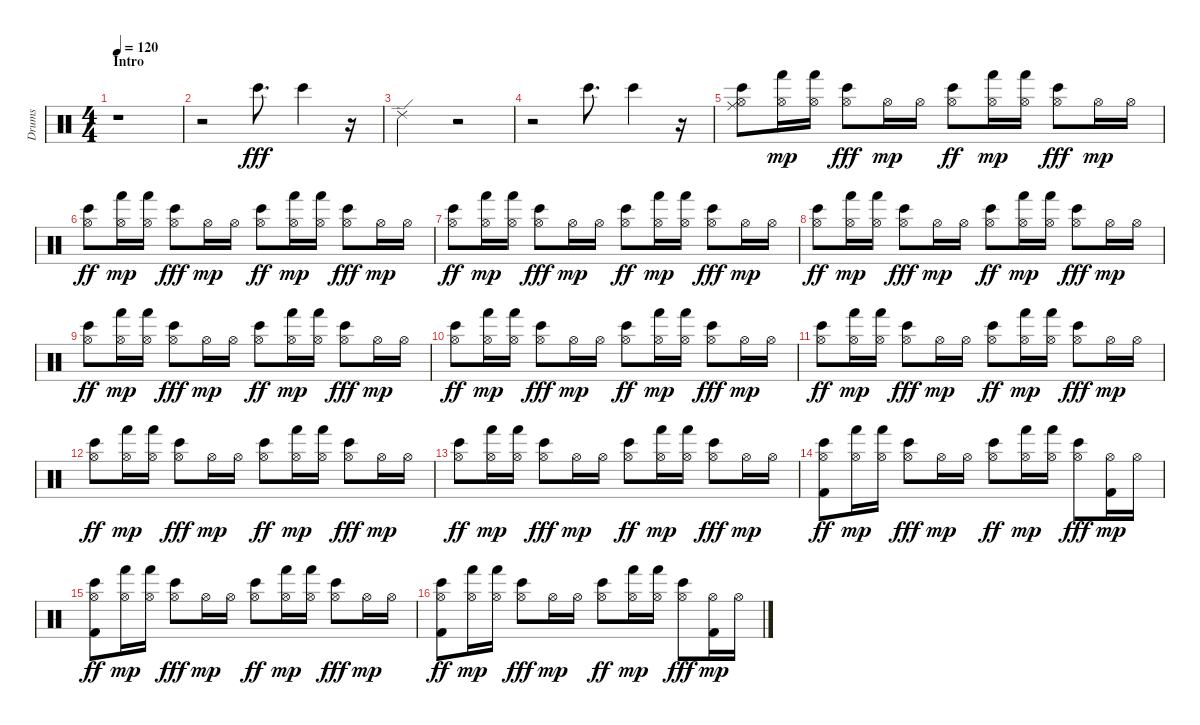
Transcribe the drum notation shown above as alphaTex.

\track ("Drums" "Drums") {instrument percussion}
\staff {score}
\articulation defaults
\ts (4 4)
\section ("" "Intro")
\tempo 120
\clef neutral
\ks c
r.1{dy fff} |
r.2 "Bongo High (hit)".8{d} "Bongo High (hit)".4 r.16 |
"Ride (edge) 2".2 r.2 |
r.2 "Bongo High (hit)".8{d} "Bongo High (hit)".4 r.16 |
("Hi-Hat (open)" "Bongo High (hit)" "Ride (middle)").8 ("Hi-Hat (open)" "Hand (hit)").16{dy mp} ("Hi-Hat (open)" "Hand (hit)").16 ("Hi-Hat (open)" "Bongo High (hit)").8{dy fff} "Hi-Hat (open)".16{dy mp} "Hi-Hat (open)".16 ("Hi-Hat (open)" "Bongo High (hit)").8{dy ff} ("Hi-Hat (open)" "Hand (hit)").16{dy mp} ("Hi-Hat (open)" "Hand (hit)").16 ("Hi-Hat (open)" "Bongo High (hit)").8{dy fff} "Hi-Hat (open)".16{dy mp} "Hi-Hat (open)".16 |
("Hi-Hat (open)" "Bongo High (hit)").8{dy ff} ("Hi-Hat (open)" "Hand (hit)").16{dy mp} ("Hi-Hat (open)" "Hand (hit)").16 ("Hi-Hat (open)" "Bongo High (hit)").8{dy fff} "Hi-Hat (open)".16{dy mp} "Hi-Hat (open)".16 ("Hi-Hat (open)" "Bongo High (hit)").8{dy ff} ("Hi-Hat (open)" "Hand (hit)").16{dy mp} ("Hi-Hat (open)" "Hand (hit)").16 ("Hi-Hat (open)" "Bongo High (hit)").8{dy fff} "Hi-Hat (open)".16{dy mp} "Hi-Hat (open)".16 |
("Hi-Hat (open)" "Bongo High (hit)").8{dy ff} ("Hi-Hat (open)" "Hand (hit)").16{dy mp} ("Hi-Hat (open)" "Hand (hit)").16 ("Hi-Hat (open)" "Bongo High (hit)").8{dy fff} "Hi-Hat (open)".16{dy mp} "Hi-Hat (open)".16 ("Hi-Hat (open)" "Bongo High (hit)").8{dy ff} ("Hi-Hat (open)" "Hand (hit)").16{dy mp} ("Hi-Hat (open)" "Hand (hit)").16 ("Hi-Hat (open)" "Bongo High (hit)").8{dy fff} "Hi-Hat (open)".16{dy mp} "Hi-Hat (open)".16 |
("Hi-Hat (open)" "Bongo High (hit)").8{dy ff} ("Hi-Hat (open)" "Hand (hit)").16{dy mp} ("Hi-Hat (open)" "Hand (hit)").16 ("Hi-Hat (open)" "Bongo High (hit)").8{dy fff} "Hi-Hat (open)".16{dy mp} "Hi-Hat (open)".16 ("Hi-Hat (open)" "Bongo High (hit)").8{dy ff} ("Hi-Hat (open)" "Hand (hit)").16{dy mp} ("Hi-Hat (open)" "Hand (hit)").16 ("Hi-Hat (open)" "Bongo High (hit)").8{dy fff} "Hi-Hat (open)".16{dy mp} "Hi-Hat (open)".16 |
("Hi-Hat (open)" "Bongo High (hit)").8{dy ff} ("Hi-Hat (open)" "Hand (hit)").16{dy mp} ("Hi-Hat (open)" "Hand (hit)").16 ("Hi-Hat (open)" "Bongo High (hit)").8{dy fff} "Hi-Hat (open)".16{dy mp} "Hi-Hat (open)".16 ("Hi-Hat (open)" "Bongo High (hit)").8{dy ff} ("Hi-Hat (open)" "Hand (hit)").16{dy mp} ("Hi-Hat (open)" "Hand (hit)").16 ("Hi-Hat (open)" "Bongo High (hit)").8{dy fff} "Hi-Hat (open)".16{dy mp} "Hi-Hat (open)".16 |
("Hi-Hat (open)" "Bongo High (hit)").8{dy ff} ("Hi-Hat (open)" "Hand (hit)").16{dy mp} ("Hi-Hat (open)" "Hand (hit)").16 ("Hi-Hat (open)" "Bongo High (hit)").8{dy fff} "Hi-Hat (open)".16{dy mp} "Hi-Hat (open)".16 ("Hi-Hat (open)" "Bongo High (hit)").8{dy ff} ("Hi-Hat (open)" "Hand (hit)").16{dy mp} ("Hi-Hat (open)" "Hand (hit)").16 ("Hi-Hat (open)" "Bongo High (hit)").8{dy fff} "Hi-Hat (open)".16{dy mp} "Hi-Hat (open)".16 |
("Hi-Hat (open)" "Bongo High (hit)").8{dy ff} ("Hi-Hat (open)" "Hand (hit)").16{dy mp} ("Hi-Hat (open)" "Hand (hit)").16 ("Hi-Hat (open)" "Bongo High (hit)").8{dy fff} "Hi-Hat (open)".16{dy mp} "Hi-Hat (open)".16 ("Hi-Hat (open)" "Bongo High (hit)").8{dy ff} ("Hi-Hat (open)" "Hand (hit)").16{dy mp} ("Hi-Hat (open)" "Hand (hit)").16 ("Hi-Hat (open)" "Bongo High (hit)").8{dy fff} "Hi-Hat (open)".16{dy mp} "Hi-Hat (open)".16 |
("Hi-Hat (open)" "Bongo High (hit)").8{dy ff} ("Hi-Hat (open)" "Hand (hit)").16{dy mp} ("Hi-Hat (open)" "Hand (hit)").16 ("Hi-Hat (open)" "Bongo High (hit)").8{dy fff} "Hi-Hat (open)".16{dy mp} "Hi-Hat (open)".16 ("Hi-Hat (open)" "Bongo High (hit)").8{dy ff} ("Hi-Hat (open)" "Hand (hit)").16{dy mp} ("Hi-Hat (open)" "Hand (hit)").16 ("Hi-Hat (open)" "Bongo High (hit)").8{dy fff} "Hi-Hat (open)".16{dy mp} "Hi-Hat (open)".16 |
("Hi-Hat (open)" "Bongo High (hit)").8{dy ff} ("Hi-Hat (open)" "Hand (hit)").16{dy mp} ("Hi-Hat (open)" "Hand (hit)").16 ("Hi-Hat (open)" "Bongo High (hit)").8{dy fff} "Hi-Hat (open)".16{dy mp} "Hi-Hat (open)".16 ("Hi-Hat (open)" "Bongo High (hit)").8{dy ff} ("Hi-Hat (open)" "Hand (hit)").16{dy mp} ("Hi-Hat (open)" "Hand (hit)").16 ("Hi-Hat (open)" "Bongo High (hit)").8{dy fff} "Hi-Hat (open)".16{dy mp} "Hi-Hat (open)".16 |
("Hi-Hat (open)" "Kick (hit) 2" "Bongo High (hit)").8{dy ff} ("Hi-Hat (open)" "Hand (hit)").16{dy mp} ("Hi-Hat (open)" "Hand (hit)").16 ("Hi-Hat (open)" "Bongo High (hit)").8{dy fff} "Hi-Hat (open)".16{dy mp} "Hi-Hat (open)".16 ("Hi-Hat (open)" "Bongo High (hit)").8{dy ff} ("Hi-Hat (open)" "Hand (hit)").16{dy mp} ("Hi-Hat (open)" "Hand (hit)").16 ("Hi-Hat (open)" "Bongo High (hit)").8{dy fff} ("Hi-Hat (open)" "Kick (hit) 2").16{dy mp} "Hi-Hat (open)".16 |
("Hi-Hat (open)" "Kick (hit) 2" "Bongo High (hit)").8{dy ff} ("Hi-Hat (open)" "Hand (hit)").16{dy mp} ("Hi-Hat (open)" "Hand (hit)").16 ("Hi-Hat (open)" "Bongo High (hit)").8{dy fff} "Hi-Hat (open)".16{dy mp} "Hi-Hat (open)".16 ("Hi-Hat (open)" "Bongo High (hit)").8{dy ff} ("Hi-Hat (open)" "Hand (hit)").16{dy mp} ("Hi-Hat (open)" "Hand (hit)").16 ("Hi-Hat (open)" "Bongo High (hit)").8{dy fff} "Hi-Hat (open)".16{dy mp} "Hi-Hat (open)".16 |
("Hi-Hat (open)" "Kick (hit) 2" "Bongo High (hit)").8{dy ff} ("Hi-Hat (open)" "Hand (hit)").16{dy mp} ("Hi-Hat (open)" "Hand (hit)").16 ("Hi-Hat (open)" "Bongo High (hit)").8{dy fff} "Hi-Hat (open)".16{dy mp} "Hi-Hat (open)".16 ("Hi-Hat (open)" "Bongo High (hit)").8{dy ff} ("Hi-Hat (open)" "Hand (hit)").16{dy mp} ("Hi-Hat (open)" "Hand (hit)").16 ("Hi-Hat (open)" "Bongo High (hit)").8{dy fff} ("Hi-Hat (open)" "Kick (hit) 2").16{dy mp} "Hi-Hat (open)".16
